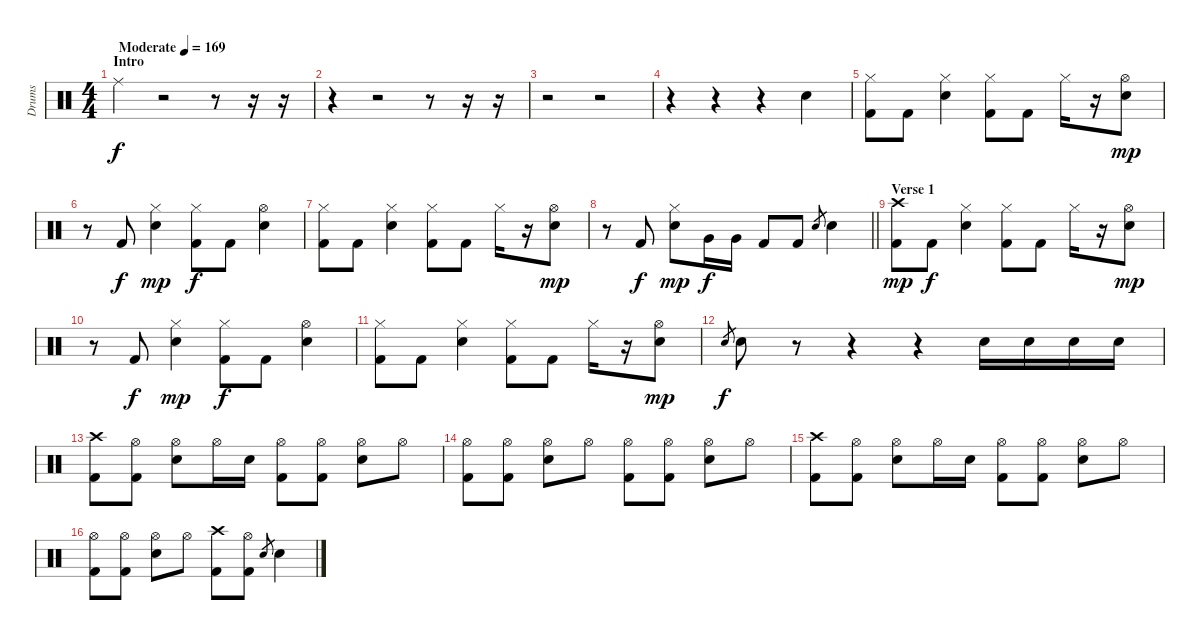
\track ("Drums" "Drums") {instrument percussion}
\staff {score}
\articulation defaults
\ts (4 4)
\section ("" "Intro")
\tempo (169 "Moderate")
\clef neutral
\ks c "Ride (middle)".4{dy f}
r.2 r.8 r.16 r.16 |
r.4 r.2 r.8 r.16 r.16 |
r.2 r.2 |
r.4 r.4 r.4 "Snare (hit) 2".4 |
("Hi-Hat (closed)" "Kick (hit) 2").8 "Kick (hit) 2".8 ("Hi-Hat (closed)" "Snare (hit) 2").4 ("Hi-Hat (closed)" "Kick (hit) 2").8 "Kick (hit) 2".8 "Hi-Hat (closed)".16 r.16 ("Hi-Hat (open)" "Snare (hit) 2").8{dy mp} |
r.8 "Kick (hit) 2".8{dy f} ("Hi-Hat (closed)" "Snare (hit) 2").4{dy mp} ("Hi-Hat (closed)" "Kick (hit) 2").8{dy f} "Kick (hit) 2".8 ("Hi-Hat (open)" "Snare (hit) 2").4 |
("Hi-Hat (closed)" "Kick (hit) 2").8 "Kick (hit) 2".8 ("Hi-Hat (closed)" "Snare (hit) 2").4 ("Hi-Hat (closed)" "Kick (hit) 2").8 "Kick (hit) 2".8 "Hi-Hat (closed)".16 r.16 ("Hi-Hat (open)" "Snare (hit) 2").8{dy mp} |
\barLineRight lightlight
r.8 "Kick (hit) 2".8{dy f} ("Hi-Hat (closed)" "Snare (hit) 2").8{dy mp} "Very Low Tom (hit)".16{dy f} "Very Low Tom (hit)".16 "Kick (hit) 2".8 "Kick (hit) 2".8 "Snare (hit) 2".8{gr} "Snare (hit) 2".4 |
\section ("" "Verse 1")
("Crash high (hit)" "Kick (hit) 2").8{dy mp} "Kick (hit) 2".8{dy f} ("Hi-Hat (closed)" "Snare (hit) 2").4 ("Hi-Hat (closed)" "Kick (hit) 2").8 "Kick (hit) 2".8 "Hi-Hat (closed)".16 r.16 ("Hi-Hat (open)" "Snare (hit) 2").8{dy mp} |
r.8 "Kick (hit) 2".8{dy f} ("Hi-Hat (closed)" "Snare (hit) 2").4{dy mp} ("Hi-Hat (closed)" "Kick (hit) 2").8{dy f} "Kick (hit) 2".8 ("Hi-Hat (open)" "Snare (hit) 2").4 |
("Hi-Hat (closed)" "Kick (hit) 2").8 "Kick (hit) 2".8 ("Hi-Hat (closed)" "Snare (hit) 2").4 ("Hi-Hat (closed)" "Kick (hit) 2").8 "Kick (hit) 2".8 "Hi-Hat (closed)".16 r.16 ("Hi-Hat (open)" "Snare (hit) 2").8{dy mp} |
"Snare (hit) 2".8{gr dy f} "Snare (hit) 2".8 r.8 r.4 r.4 "Snare (hit) 2".16 "Snare (hit) 2".16 "Snare (hit) 2".16 "Snare (hit) 2".16 |
("Crash high (hit)" "Kick (hit) 2").8 ("Hi-Hat (open)" "Kick (hit) 2").8 ("Hi-Hat (open)" "Snare (hit) 2").8 "Hi-Hat (open)".16 "Snare (hit) 2".16 ("Hi-Hat (open)" "Kick (hit) 2").8 ("Hi-Hat (open)" "Kick (hit) 2").8 ("Hi-Hat (open)" "Snare (hit) 2").8 "Hi-Hat (open)".8 |
("Hi-Hat (open)" "Kick (hit) 2").8 ("Hi-Hat (open)" "Kick (hit) 2").8 ("Hi-Hat (open)" "Snare (hit) 2").8 "Hi-Hat (open)".8 ("Hi-Hat (open)" "Kick (hit) 2").8 ("Hi-Hat (open)" "Kick (hit) 2").8 ("Hi-Hat (open)" "Snare (hit) 2").8 "Hi-Hat (open)".8 |
("Crash high (hit)" "Kick (hit) 2").8 ("Hi-Hat (open)" "Kick (hit) 2").8 ("Hi-Hat (open)" "Snare (hit) 2").8 "Hi-Hat (open)".16 "Snare (hit) 2".16 ("Hi-Hat (open)" "Kick (hit) 2").8 ("Hi-Hat (open)" "Kick (hit) 2").8 ("Hi-Hat (open)" "Snare (hit) 2").8 "Hi-Hat (open)".8 |
("Hi-Hat (open)" "Kick (hit) 2").8 ("Hi-Hat (open)" "Kick (hit) 2").8 ("Hi-Hat (open)" "Snare (hit) 2").8 "Hi-Hat (open)".8 ("Crash high (hit)" "Kick (hit) 2").8 ("Hi-Hat (open)" "Kick (hit) 2").8 "Snare (hit) 2".8{gr} "Snare (hit) 2".4
